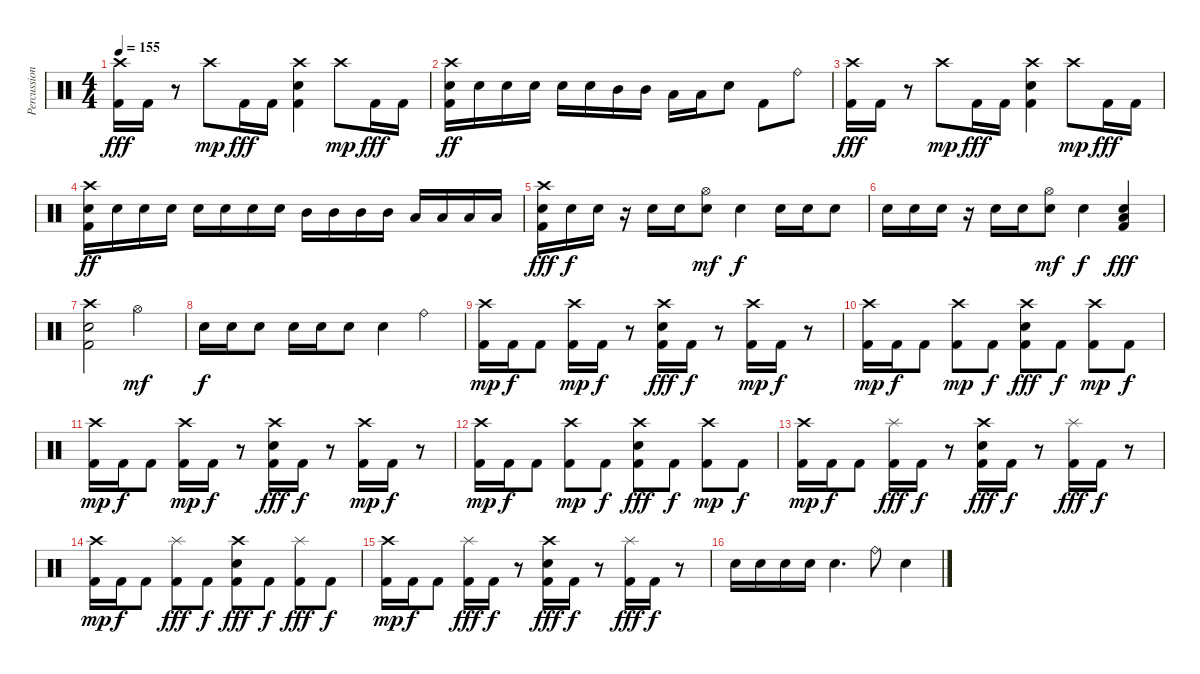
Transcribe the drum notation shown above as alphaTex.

\track ("Percussion" "Percussion") {instrument percussion}
\staff {score}
\articulation defaults
\ts (4 4)
\tempo 155
\clef neutral
\ks c
("Crash high (hit)" "Kick (hit) 2").16{dy fff} "Kick (hit) 2".16 r.8 "Crash high (hit)".8{dy mp} "Kick (hit) 2".16{dy fff} "Kick (hit) 2".16 ("Crash high (hit)" "Electric Snare (hit)" "Kick (hit) 2").4 "Crash high (hit)".8{dy mp} "Kick (hit) 2".16{dy fff} "Kick (hit) 2".16 |
("Crash high (hit)" "Electric Snare (hit)" "Kick (hit) 2").16{dy ff} "Electric Snare (hit)".16 "Electric Snare (hit)".16 "Electric Snare (hit)".16 "Electric Snare (hit)".16 "Electric Snare (hit)".16 "Mid Tom (hit)".16 "Mid Tom (hit)".16 "Low Tom (hit)".16 "Low Tom (hit)".16 "Electric Snare (hit)".8 "Kick (hit) 2".8 "Ride (bell)".8 |
("Crash high (hit)" "Kick (hit) 2").16{dy fff} "Kick (hit) 2".16 r.8 "Crash high (hit)".8{dy mp} "Kick (hit) 2".16{dy fff} "Kick (hit) 2".16 ("Crash high (hit)" "Electric Snare (hit)" "Kick (hit) 2").4 "Crash high (hit)".8{dy mp} "Kick (hit) 2".16{dy fff} "Kick (hit) 2".16 |
("Crash high (hit)" "Electric Snare (hit)" "Kick (hit) 2").16{dy ff} "Electric Snare (hit)".16 "Electric Snare (hit)".16 "Electric Snare (hit)".16 "Electric Snare (hit)".16 "Electric Snare (hit)".16 "Electric Snare (hit)".16 "Electric Snare (hit)".16 "Mid Tom (hit)".16 "Mid Tom (hit)".16 "Mid Tom (hit)".16 "Mid Tom (hit)".16 "Low Tom (hit)".16 "Low Tom (hit)".16 "Low Tom (hit)".16 "Low Tom (hit)".16 |
("Crash high (hit)" "Electric Snare (hit)" "Kick (hit) 2").16{dy fff} "Electric Snare (hit)".16{dy f} "Electric Snare (hit)".16 r.16 "Electric Snare (hit)".16 "Electric Snare (hit)".16 ("Hi-Hat (open)" "Electric Snare (hit)").8{dy mf} "Electric Snare (hit)".4{dy f} "Electric Snare (hit)".16 "Electric Snare (hit)".16 "Electric Snare (hit)".8 |
"Electric Snare (hit)".16 "Electric Snare (hit)".16 "Electric Snare (hit)".16 r.16 "Electric Snare (hit)".16 "Electric Snare (hit)".16 ("Hi-Hat (open)" "Electric Snare (hit)").8{dy mf} "Electric Snare (hit)".4{dy f} ("Low Floor Tom (hit)" "Electric Snare (hit)" "Kick (hit) 2").4{dy fff} |
("Crash high (hit)" "Electric Snare (hit)" "Kick (hit) 2").2 "Hi-Hat (open)".2{dy mf} |
"Electric Snare (hit)".16{dy f} "Electric Snare (hit)".16 "Electric Snare (hit)".8 "Electric Snare (hit)".16 "Electric Snare (hit)".16 "Electric Snare (hit)".8 "Electric Snare (hit)".4 "Ride (bell)".4 |
("Crash high (hit)" "Kick (hit) 2").16{dy mp} "Kick (hit) 2".16{dy f} "Kick (hit) 2".8 ("Crash high (hit)" "Kick (hit) 2").16{dy mp} "Kick (hit) 2".16{dy f} r.8 ("Crash high (hit)" "Electric Snare (hit)" "Kick (hit) 2").16{dy fff} "Kick (hit) 2".16{dy f} r.8 ("Crash high (hit)" "Kick (hit) 2").16{dy mp} "Kick (hit) 2".16{dy f} r.8 |
("Crash high (hit)" "Kick (hit) 2").16{dy mp} "Kick (hit) 2".16{dy f} "Kick (hit) 2".8 ("Crash high (hit)" "Kick (hit) 2").8{dy mp} "Kick (hit) 2".8{dy f} ("Crash high (hit)" "Electric Snare (hit)" "Kick (hit) 2").8{dy fff} "Kick (hit) 2".8{dy f} ("Crash high (hit)" "Kick (hit) 2").8{dy mp} "Kick (hit) 2".8{dy f} |
("Crash high (hit)" "Kick (hit) 2").16{dy mp} "Kick (hit) 2".16{dy f} "Kick (hit) 2".8 ("Crash high (hit)" "Kick (hit) 2").16{dy mp} "Kick (hit) 2".16{dy f} r.8 ("Crash high (hit)" "Electric Snare (hit)" "Kick (hit) 2").16{dy fff} "Kick (hit) 2".16{dy f} r.8 ("Crash high (hit)" "Kick (hit) 2").16{dy mp} "Kick (hit) 2".16{dy f} r.8 |
("Crash high (hit)" "Kick (hit) 2").16{dy mp} "Kick (hit) 2".16{dy f} "Kick (hit) 2".8 ("Crash high (hit)" "Kick (hit) 2").8{dy mp} "Kick (hit) 2".8{dy f} ("Crash high (hit)" "Electric Snare (hit)" "Kick (hit) 2").8{dy fff} "Kick (hit) 2".8{dy f} ("Crash high (hit)" "Kick (hit) 2").8{dy mp} "Kick (hit) 2".8{dy f} |
("Crash high (hit)" "Kick (hit) 2").16{dy mp} "Kick (hit) 2".16{dy f} "Kick (hit) 2".8 ("Splash (hit)" "Kick (hit) 2").16{dy fff} "Kick (hit) 2".16{dy f} r.8 ("Crash high (hit)" "Electric Snare (hit)" "Kick (hit) 2").16{dy fff} "Kick (hit) 2".16{dy f} r.8 ("Splash (hit)" "Kick (hit) 2").16{dy fff} "Kick (hit) 2".16{dy f} r.8 |
("Crash high (hit)" "Kick (hit) 2").16{dy mp} "Kick (hit) 2".16{dy f} "Kick (hit) 2".8 ("Splash (hit)" "Kick (hit) 2").8{dy fff} "Kick (hit) 2".8{dy f} ("Crash high (hit)" "Electric Snare (hit)" "Kick (hit) 2").8{dy fff} "Kick (hit) 2".8{dy f} ("Splash (hit)" "Kick (hit) 2").8{dy fff} "Kick (hit) 2".8{dy f} |
("Crash high (hit)" "Kick (hit) 2").16{dy mp} "Kick (hit) 2".16{dy f} "Kick (hit) 2".8 ("Splash (hit)" "Kick (hit) 2").16{dy fff} "Kick (hit) 2".16{dy f} r.8 ("Crash high (hit)" "Electric Snare (hit)" "Kick (hit) 2").16{dy fff} "Kick (hit) 2".16{dy f} r.8 ("Splash (hit)" "Kick (hit) 2").16{dy fff} "Kick (hit) 2".16{dy f} r.8 |
"Electric Snare (hit)".16 "Electric Snare (hit)".16 "Electric Snare (hit)".16 "Electric Snare (hit)".16 "Electric Snare (hit)".4{d} "Ride (bell)".8 "Electric Snare (hit)".4
